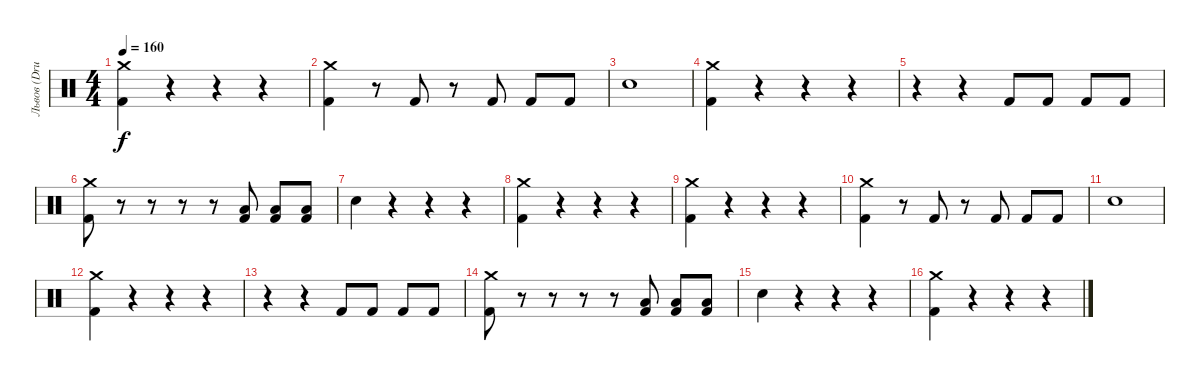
\track ("Львов (Drums)" "Львов (Dru") {instrument percussion}
\staff {score}
\articulation defaults
\ts (4 4)
\tempo 160
\clef neutral
\ks c
("Kick (hit) 2" "Crash medium (hit)").4{dy f} r.4 r.4 r.4 |
("Kick (hit) 2" "Crash medium (hit)").4 r.8 "Kick (hit) 2".8 r.8 "Kick (hit) 2".8 "Kick (hit) 2".8 "Kick (hit) 2".8 |
"Snare (hit) 2".1 |
("Kick (hit) 2" "Crash medium (hit)").4 r.4 r.4 r.4 |
r.4 r.4 "Kick (hit) 2".8 "Kick (hit) 2".8 "Kick (hit) 2".8 "Kick (hit) 2".8 |
("Kick (hit) 2" "Crash medium (hit)").8 r.8 r.8 r.8 r.8 ("Kick (hit) 2" "Low Floor Tom (hit)").8 ("Kick (hit) 2" "Low Floor Tom (hit)").8 ("Kick (hit) 2" "Low Floor Tom (hit)").8 |
"Snare (hit) 2".4 r.4 r.4 r.4 |
("Kick (hit) 2" "Crash medium (hit)").4 r.4 r.4 r.4 |
("Kick (hit) 2" "Crash medium (hit)").4 r.4 r.4 r.4 |
("Kick (hit) 2" "Crash medium (hit)").4 r.8 "Kick (hit) 2".8 r.8 "Kick (hit) 2".8 "Kick (hit) 2".8 "Kick (hit) 2".8 |
"Snare (hit) 2".1 |
("Kick (hit) 2" "Crash medium (hit)").4 r.4 r.4 r.4 |
r.4 r.4 "Kick (hit) 2".8 "Kick (hit) 2".8 "Kick (hit) 2".8 "Kick (hit) 2".8 |
("Kick (hit) 2" "Crash medium (hit)").8 r.8 r.8 r.8 r.8 ("Kick (hit) 2" "Low Floor Tom (hit)").8 ("Kick (hit) 2" "Low Floor Tom (hit)").8 ("Kick (hit) 2" "Low Floor Tom (hit)").8 |
"Snare (hit) 2".4 r.4 r.4 r.4 |
("Kick (hit) 2" "Crash medium (hit)").4 r.4 r.4 r.4
